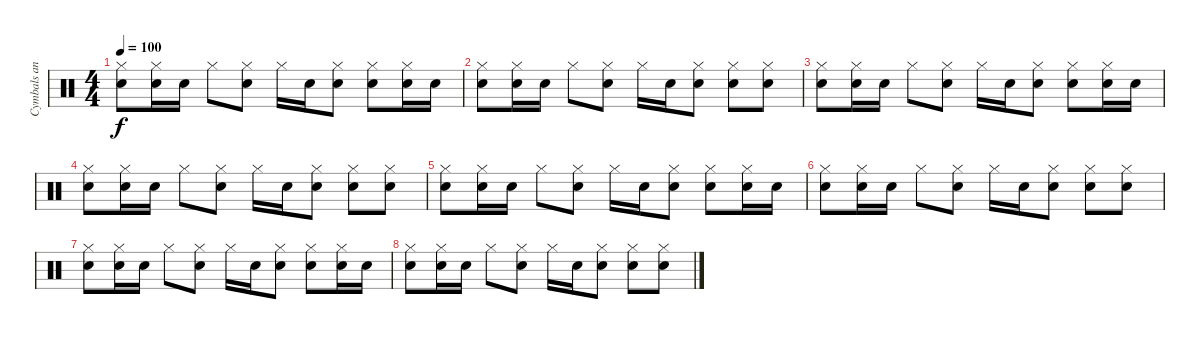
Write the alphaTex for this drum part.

\track ("Cymbals and Snare" "Cymbals an") {instrument percussion}
\staff {score}
\articulation defaults
\ts (4 4)
\tempo 100
\clef neutral
\ks c
("Hand Clap (hit)" "Hi-Hat (closed)").8{dy f} ("Hand Clap (hit)" "Hi-Hat (closed)").16 "Hand Clap (hit)".16 "Hi-Hat (closed)".8 ("Hand Clap (hit)" "Hi-Hat (closed)").8 "Hi-Hat (closed)".16 "Hand Clap (hit)".16 ("Hand Clap (hit)" "Hi-Hat (closed)").8 ("Hand Clap (hit)" "Hi-Hat (closed)").8 ("Hand Clap (hit)" "Hi-Hat (closed)").16 "Hand Clap (hit)".16 |
("Hand Clap (hit)" "Hi-Hat (closed)").8 ("Hand Clap (hit)" "Hi-Hat (closed)").16 "Hand Clap (hit)".16 "Hi-Hat (closed)".8 ("Hand Clap (hit)" "Hi-Hat (closed)").8 "Hi-Hat (closed)".16 "Hand Clap (hit)".16 ("Hand Clap (hit)" "Hi-Hat (closed)").8 ("Hand Clap (hit)" "Hi-Hat (closed)").8 ("Hand Clap (hit)" "Hi-Hat (closed)").8 |
("Hand Clap (hit)" "Hi-Hat (closed)").8 ("Hand Clap (hit)" "Hi-Hat (closed)").16 "Hand Clap (hit)".16 "Hi-Hat (closed)".8 ("Hand Clap (hit)" "Hi-Hat (closed)").8 "Hi-Hat (closed)".16 "Hand Clap (hit)".16 ("Hand Clap (hit)" "Hi-Hat (closed)").8 ("Hand Clap (hit)" "Hi-Hat (closed)").8 ("Hand Clap (hit)" "Hi-Hat (closed)").16 "Hand Clap (hit)".16 |
("Hand Clap (hit)" "Hi-Hat (closed)").8 ("Hand Clap (hit)" "Hi-Hat (closed)").16 "Hand Clap (hit)".16 "Hi-Hat (closed)".8 ("Hand Clap (hit)" "Hi-Hat (closed)").8 "Hi-Hat (closed)".16 "Hand Clap (hit)".16 ("Hand Clap (hit)" "Hi-Hat (closed)").8 ("Hand Clap (hit)" "Hi-Hat (closed)").8 ("Hand Clap (hit)" "Hi-Hat (closed)").8 |
("Hand Clap (hit)" "Hi-Hat (closed)").8 ("Hand Clap (hit)" "Hi-Hat (closed)").16 "Hand Clap (hit)".16 "Hi-Hat (closed)".8 ("Hand Clap (hit)" "Hi-Hat (closed)").8 "Hi-Hat (closed)".16 "Hand Clap (hit)".16 ("Hand Clap (hit)" "Hi-Hat (closed)").8 ("Hand Clap (hit)" "Hi-Hat (closed)").8 ("Hand Clap (hit)" "Hi-Hat (closed)").16 "Hand Clap (hit)".16 |
("Hand Clap (hit)" "Hi-Hat (closed)").8 ("Hand Clap (hit)" "Hi-Hat (closed)").16 "Hand Clap (hit)".16 "Hi-Hat (closed)".8 ("Hand Clap (hit)" "Hi-Hat (closed)").8 "Hi-Hat (closed)".16 "Hand Clap (hit)".16 ("Hand Clap (hit)" "Hi-Hat (closed)").8 ("Hand Clap (hit)" "Hi-Hat (closed)").8 ("Hand Clap (hit)" "Hi-Hat (closed)").8 |
("Hand Clap (hit)" "Hi-Hat (closed)").8 ("Hand Clap (hit)" "Hi-Hat (closed)").16 "Hand Clap (hit)".16 "Hi-Hat (closed)".8 ("Hand Clap (hit)" "Hi-Hat (closed)").8 "Hi-Hat (closed)".16 "Hand Clap (hit)".16 ("Hand Clap (hit)" "Hi-Hat (closed)").8 ("Hand Clap (hit)" "Hi-Hat (closed)").8 ("Hand Clap (hit)" "Hi-Hat (closed)").16 "Hand Clap (hit)".16 |
("Hand Clap (hit)" "Hi-Hat (closed)").8 ("Hand Clap (hit)" "Hi-Hat (closed)").16 "Hand Clap (hit)".16 "Hi-Hat (closed)".8 ("Hand Clap (hit)" "Hi-Hat (closed)").8 "Hi-Hat (closed)".16 "Hand Clap (hit)".16 ("Hand Clap (hit)" "Hi-Hat (closed)").8 ("Hand Clap (hit)" "Hi-Hat (closed)").8 ("Hand Clap (hit)" "Hi-Hat (closed)").8
